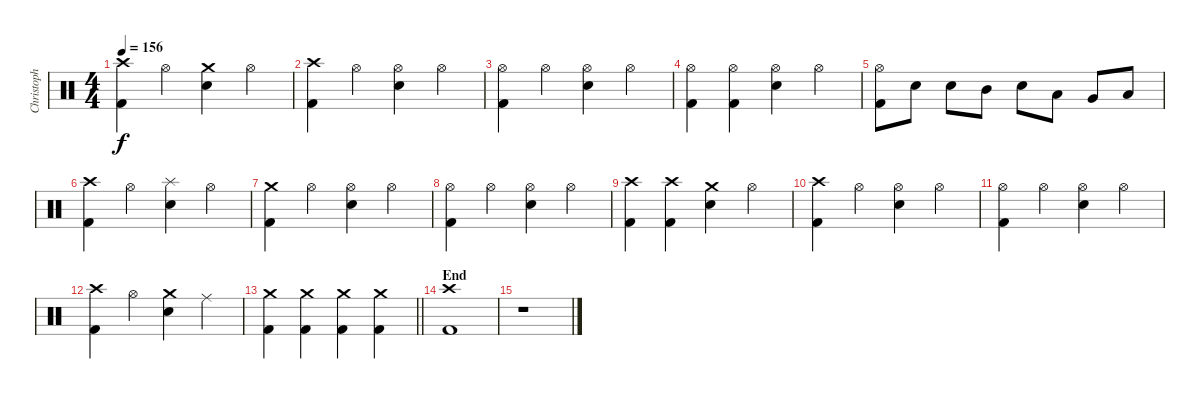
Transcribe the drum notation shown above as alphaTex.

\track ("Christoph Schneider" "Christoph ") {instrument percussion}
\staff {score}
\articulation defaults
\ts (4 4)
\tempo 156
\clef neutral
\ks c
("Crash high (hit)" "Kick (hit) 2").4{dy f} "Hi-Hat (open)".4 ("Crash medium (hit)" "Snare (hit) 2").4 "Hi-Hat (open)".4 |
("Crash high (hit)" "Kick (hit) 2").4 "Hi-Hat (open)".4 ("Hi-Hat (open)" "Snare (hit) 2").4 "Hi-Hat (open)".4 |
("Hi-Hat (open)" "Kick (hit) 2").4 "Hi-Hat (open)".4 ("Hi-Hat (open)" "Snare (hit) 2").4 "Hi-Hat (open)".4 |
("Hi-Hat (open)" "Kick (hit) 2").4 ("Hi-Hat (open)" "Kick (hit) 2").4 ("Hi-Hat (open)" "Snare (hit) 2").4 "Hi-Hat (open)".4 |
("Hi-Hat (open)" "Kick (hit) 2").8 "Snare (hit) 2".8 "Snare (hit) 2".8 "Mid Tom (hit)".8 "Snare (hit) 2".8 "Low Tom (hit)".8 "Very Low Tom (hit)".8 "Low Floor Tom (hit)".8 |
("Crash high (hit)" "Kick (hit) 2").4 "Hi-Hat (open)".4 ("Splash (hit)" "Snare (hit) 2").4 "Hi-Hat (open)".4 |
("Crash medium (hit)" "Kick (hit) 2").4 "Hi-Hat (open)".4 ("Hi-Hat (open)" "Snare (hit) 2").4 "Hi-Hat (open)".4 |
("Hi-Hat (open)" "Kick (hit) 2").4 "Hi-Hat (open)".4 ("Hi-Hat (open)" "Snare (hit) 2").4 "Hi-Hat (open)".4 |
("Crash high (hit)" "Kick (hit) 2").4 ("Crash high (hit)" "Kick (hit) 2").4 ("Crash medium (hit)" "Snare (hit) 2").4 "Hi-Hat (open)".4 |
("Crash high (hit)" "Kick (hit) 2").4 "Hi-Hat (open)".4 ("Hi-Hat (open)" "Snare (hit) 2").4 "Hi-Hat (open)".4 |
("Hi-Hat (open)" "Kick (hit) 2").4 "Hi-Hat (open)".4 ("Hi-Hat (open)" "Snare (hit) 2").4 "Hi-Hat (open)".4 |
("Crash high (hit)" "Kick (hit) 2").4 "Hi-Hat (open)".4 ("Crash medium (hit)" "Snare (hit) 2").4 "Ride (middle)".4 |
\barLineRight lightlight
("Crash medium (hit)" "Kick (hit) 2").4 ("Crash medium (hit)" "Kick (hit) 2").4 ("Crash medium (hit)" "Kick (hit) 2").4 ("Crash medium (hit)" "Kick (hit) 2").4 |
\section ("" "End")
("Crash high (hit)" "Kick (hit) 2").1 |
r.1
